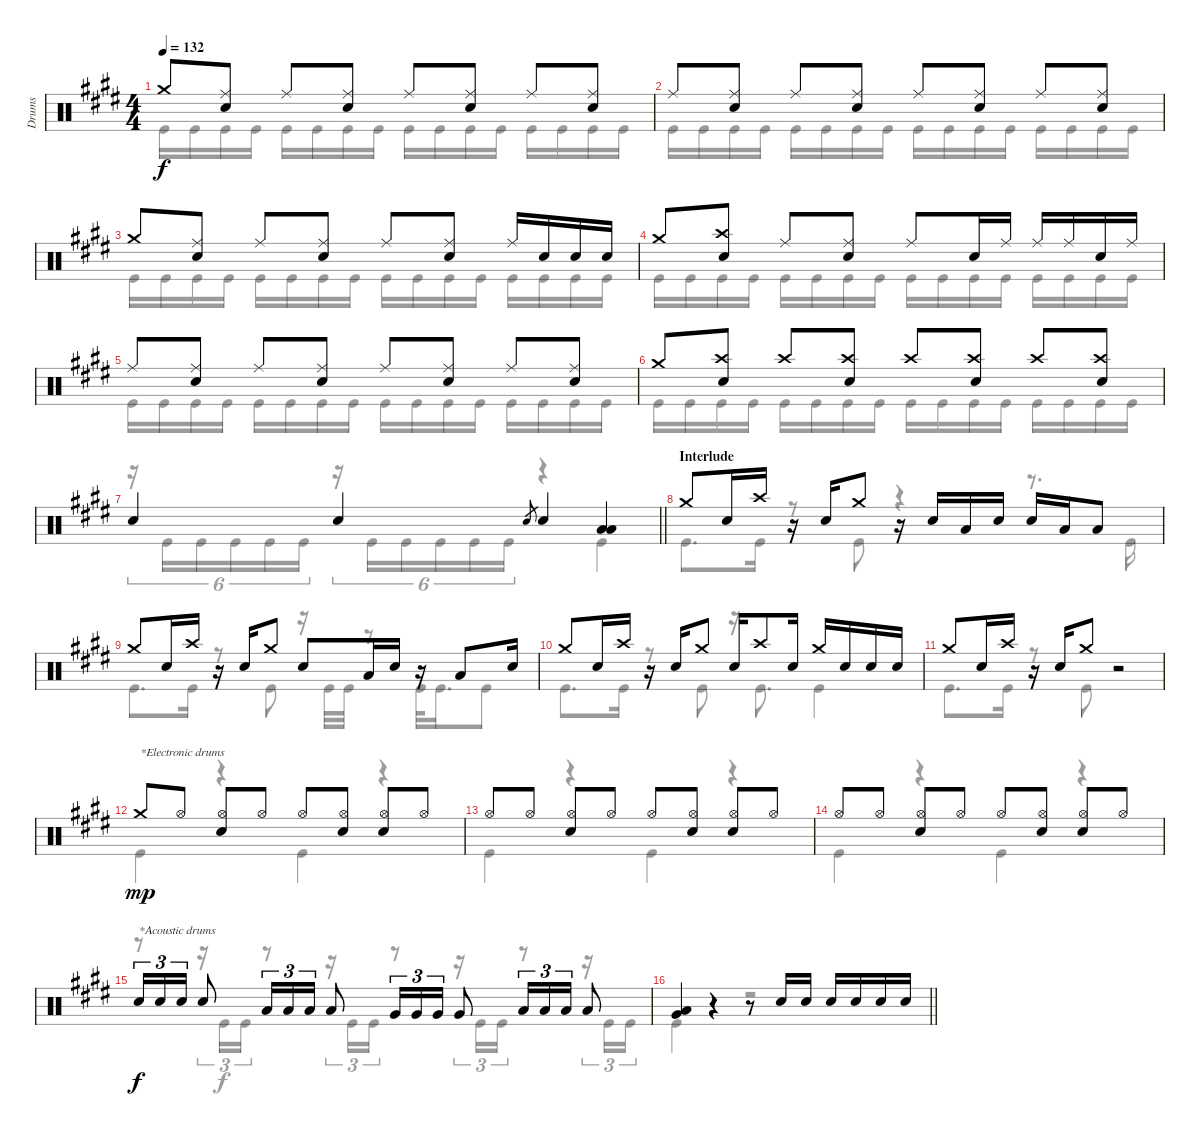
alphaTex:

\track ("Drums" "Drums") {instrument percussion}
\staff {score}
\articulation defaults
\voice
\ts (4 4)
\tempo 132
\clef neutral
\ks c#minor "Crash medium (hit)".8{dy f}
("Ride (middle)" "Electric Snare (hit)").8 "Ride (middle)".8 ("Ride (middle)" "Electric Snare (hit)").8 "Ride (middle)".8 ("Ride (middle)" "Electric Snare (hit)").8 "Ride (middle)".8 ("Ride (middle)" "Electric Snare (hit)").8 |
"Ride (middle)".8 ("Ride (middle)" "Electric Snare (hit)").8 "Ride (middle)".8 ("Ride (middle)" "Electric Snare (hit)").8 "Ride (middle)".8 ("Ride (middle)" "Electric Snare (hit)").8 "Ride (middle)".8 ("Ride (middle)" "Electric Snare (hit)").8 |
"Crash medium (hit)".8 ("Ride (middle)" "Electric Snare (hit)").8 "Ride (middle)".8 ("Ride (middle)" "Electric Snare (hit)").8 "Ride (middle)".8 ("Ride (middle)" "Electric Snare (hit)").8 "Ride (middle)".16 "Electric Snare (hit)".16 "Electric Snare (hit)".16 "Electric Snare (hit)".16 |
"Crash medium (hit)".8 ("Crash high (hit)" "Electric Snare (hit)").8 "Ride (middle)".8 ("Ride (middle)" "Electric Snare (hit)").8 "Ride (middle)".8 "Electric Snare (hit)".16 "Ride (middle)".16 "Ride (middle)".16 "Ride (middle)".16 "Electric Snare (hit)".16 "Ride (middle)".16 |
"Ride (middle)".8 ("Ride (middle)" "Electric Snare (hit)").8 "Ride (middle)".8 ("Ride (middle)" "Electric Snare (hit)").8 "Ride (middle)".8 ("Ride (middle)" "Electric Snare (hit)").8 "Ride (middle)".8 ("Ride (middle)" "Electric Snare (hit)").8 |
"Crash medium (hit)".8 ("Crash high (hit)" "Electric Snare (hit)").8 "Crash high (hit)".8 ("Crash high (hit)" "Electric Snare (hit)").8 "Crash high (hit)".8 ("Crash high (hit)" "Electric Snare (hit)").8 "Crash high (hit)".8 ("Crash high (hit)" "Electric Snare (hit)").8 |
\barLineRight lightlight "Electric Snare (hit)".4 "Electric Snare (hit)".4 "Electric Snare (hit)".8{gr} "Electric Snare (hit)".4
("Low Tom (hit)" "Low Floor Tom (hit)").4 |
\section ("" "Interlude")
"Crash medium (hit)".8 "Electric Snare (hit)".16 "Crash high (hit)".16 r.16 "Electric Snare (hit)".16 "Crash medium (hit)".8 r.16 "Electric Snare (hit)".16 "Low Tom (hit)".16 "Electric Snare (hit)".16 "Electric Snare (hit)".16 "Low Tom (hit)".16 "Low Floor Tom (hit)".8 |
"Crash medium (hit)".8 "Electric Snare (hit)".16 "Crash high (hit)".16 r.16 "Electric Snare (hit)".16 "Crash medium (hit)".8 "Electric Snare (hit)".8 "Low Tom (hit)".16 "Electric Snare (hit)".16 r.16 "Low Tom (hit)".8 "Electric Snare (hit)".16 |
"Crash medium (hit)".8 "Electric Snare (hit)".16 "Crash high (hit)".16 r.16 "Electric Snare (hit)".16 "Crash medium (hit)".8 "Electric Snare (hit)".16 "Crash high (hit)".8 "Electric Snare (hit)".16 "Crash medium (hit)".16 "Electric Snare (hit)".16 "Electric Snare (hit)".16 "Electric Snare (hit)".16 |
"Crash medium (hit)".8 "Electric Snare (hit)".16 "Crash high (hit)".16 r.16 "Electric Snare (hit)".16 "Crash medium (hit)".8 r.2 |
"Crash medium (hit)".8{txt "*Electronic drums" dy mp volume 4} "Hi-Hat (open)".8 ("Hi-Hat (open)" "Electric Snare (hit)").8 "Hi-Hat (open)".8 "Hi-Hat (open)".8 ("Hi-Hat (open)" "Electric Snare (hit)").8 ("Hi-Hat (open)" "Electric Snare (hit)").8 "Hi-Hat (open)".8 |
"Hi-Hat (open)".8 "Hi-Hat (open)".8 ("Hi-Hat (open)" "Electric Snare (hit)").8 "Hi-Hat (open)".8 "Hi-Hat (open)".8 ("Hi-Hat (open)" "Electric Snare (hit)").8 ("Hi-Hat (open)" "Electric Snare (hit)").8 "Hi-Hat (open)".8 |
"Hi-Hat (open)".8 "Hi-Hat (open)".8 ("Hi-Hat (open)" "Electric Snare (hit)").8 "Hi-Hat (open)".8 "Hi-Hat (open)".8 ("Hi-Hat (open)" "Electric Snare (hit)").8 ("Hi-Hat (open)" "Electric Snare (hit)").8 "Hi-Hat (open)".8 |
"Electric Snare (hit)".16{tu (3 2) txt "*Acoustic drums" dy f volume 9} "Electric Snare (hit)".16{tu (3 2)} "Electric Snare (hit)".16{tu (3 2)} "Electric Snare (hit)".8 "Low Tom (hit)".16{tu (3 2)} "Low Tom (hit)".16{tu (3 2)} "Low Tom (hit)".16{tu (3 2)} "Low Tom (hit)".8 "Very Low Tom (hit)".16{tu (3 2)} "Very Low Tom (hit)".16{tu (3 2)} "Very Low Tom (hit)".16{tu (3 2)} "Very Low Tom (hit)".8 "Low Floor Tom (hit)".16{tu (3 2)} "Low Floor Tom (hit)".16{tu (3 2)} "Low Floor Tom (hit)".16{tu (3 2)} "Low Floor Tom (hit)".8 |
\barLineRight lightlight
("Very Low Tom (hit)" "Low Floor Tom (hit)").4 r.4 r.8 "Electric Snare (hit)".16 "Electric Snare (hit)".16 "Electric Snare (hit)".16 "Electric Snare (hit)".16 "Electric Snare (hit)".16 "Electric Snare (hit)".16
\voice
\clef neutral
\ottava regular
\simile none
\ks c#minor "Kick (hit)".16{dy f} "Kick (hit)".16 "Kick (hit)".16 "Kick (hit)".16 "Kick (hit)".16 "Kick (hit)".16 "Kick (hit)".16 "Kick (hit)".16 "Kick (hit)".16 "Kick (hit)".16 "Kick (hit)".16 "Kick (hit)".16 "Kick (hit)".16 "Kick (hit)".16 "Kick (hit)".16 "Kick (hit)".16
|
"Kick (hit)".16 "Kick (hit)".16 "Kick (hit)".16 "Kick (hit)".16 "Kick (hit)".16 "Kick (hit)".16 "Kick (hit)".16 "Kick (hit)".16 "Kick (hit)".16 "Kick (hit)".16 "Kick (hit)".16 "Kick (hit)".16 "Kick (hit)".16 "Kick (hit)".16 "Kick (hit)".16 "Kick (hit)".16 |
"Kick (hit)".16 "Kick (hit)".16 "Kick (hit)".16 "Kick (hit)".16 "Kick (hit)".16 "Kick (hit)".16 "Kick (hit)".16 "Kick (hit)".16 "Kick (hit)".16 "Kick (hit)".16 "Kick (hit)".16 "Kick (hit)".16 "Kick (hit)".16 "Kick (hit)".16 "Kick (hit)".16 "Kick (hit)".16 |
"Kick (hit)".16 "Kick (hit)".16 "Kick (hit)".16 "Kick (hit)".16 "Kick (hit)".16 "Kick (hit)".16 "Kick (hit)".16 "Kick (hit)".16 "Kick (hit)".16 "Kick (hit)".16 "Kick (hit)".16 "Kick (hit)".16 "Kick (hit)".16 "Kick (hit)".16 "Kick (hit)".16 "Kick (hit)".16 |
"Kick (hit)".16 "Kick (hit)".16 "Kick (hit)".16 "Kick (hit)".16 "Kick (hit)".16 "Kick (hit)".16 "Kick (hit)".16 "Kick (hit)".16 "Kick (hit)".16 "Kick (hit)".16 "Kick (hit)".16 "Kick (hit)".16 "Kick (hit)".16 "Kick (hit)".16 "Kick (hit)".16 "Kick (hit)".16 |
"Kick (hit)".16 "Kick (hit)".16 "Kick (hit)".16 "Kick (hit)".16 "Kick (hit)".16 "Kick (hit)".16 "Kick (hit)".16 "Kick (hit)".16 "Kick (hit)".16 "Kick (hit)".16 "Kick (hit)".16 "Kick (hit)".16 "Kick (hit)".16 "Kick (hit)".16 "Kick (hit)".16 "Kick (hit)".16 |
\barLineRight lightlight
r.16{tu (6 4)} "Kick (hit)".16{tu (6 4)} "Kick (hit)".16{tu (6 4)} "Kick (hit)".16{tu (6 4)} "Kick (hit)".16{tu (6 4)} "Kick (hit)".16{tu (6 4)} r.16{tu (6 4)} "Kick (hit)".16{tu (6 4)} "Kick (hit)".16{tu (6 4)} "Kick (hit)".16{tu (6 4)} "Kick (hit)".16{tu (6 4)} "Kick (hit)".16{tu (6 4)} r.4 "Kick (hit)".4 |
"Kick (hit)".8{d} "Kick (hit)".16 r.8 "Kick (hit)".8 r.4 r.8{d} "Kick (hit)".16 |
"Kick (hit)".8{d} "Kick (hit)".16 r.8 "Kick (hit)".8 r.16 "Kick (hit)".32 "Kick (hit)".32 r.8 "Kick (hit)".32 "Kick (hit)".16{d} "Kick (hit)".8 |
"Kick (hit)".8{d} "Kick (hit)".16 r.8 "Kick (hit)".8 r.16 "Kick (hit)".8{d} "Kick (hit)".4 |
"Kick (hit)".8{d} "Kick (hit)".16 r.8 "Kick (hit)".8 r.2 |
"Kick (hit)".4{dy mp} r.4 "Kick (hit)".4 r.4 |
"Kick (hit)".4 r.4 "Kick (hit)".4 r.4 |
"Kick (hit)".4 r.4 "Kick (hit)".4 r.4 |
r.8 r.16{tu (3 2)} "Kick (hit)".16{tu (3 2) dy f} "Kick (hit)".16{tu (3 2)} r.8 r.16{tu (3 2)} "Kick (hit)".16{tu (3 2)} "Kick (hit)".16{tu (3 2)} r.8 r.16{tu (3 2)} "Kick (hit)".16{tu (3 2)} "Kick (hit)".16{tu (3 2)} r.8 r.16{tu (3 2)} "Kick (hit)".16{tu (3 2)} "Kick (hit)".16{tu (3 2)} |
\barLineRight lightlight "Kick (hit)".4
r.4 r.2
